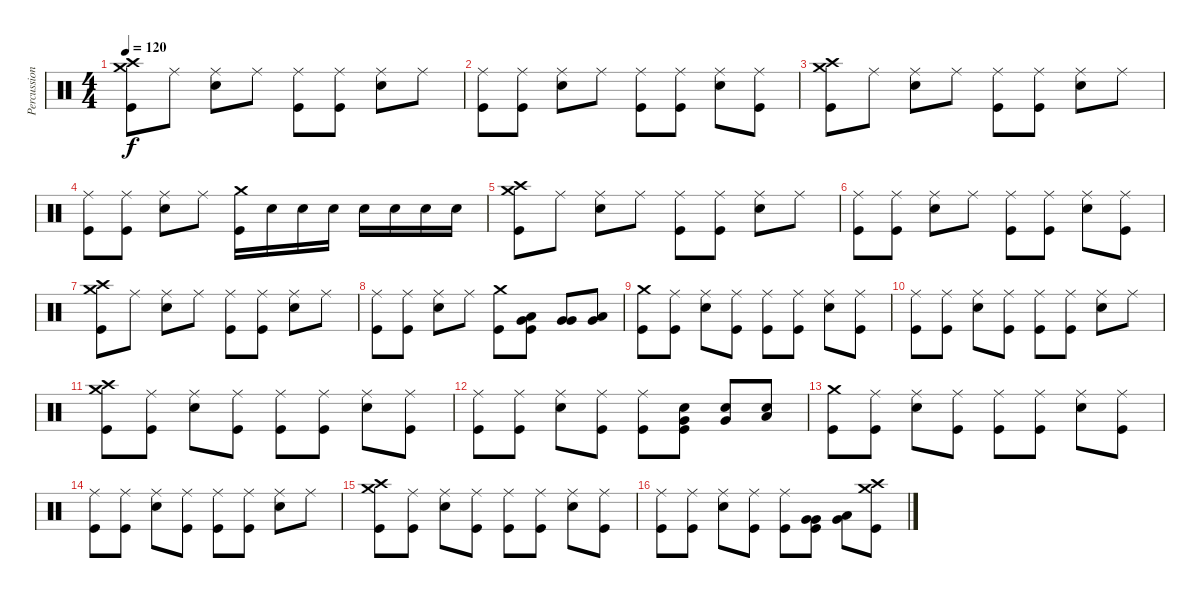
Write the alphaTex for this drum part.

\track ("Percussion" "Percussion") {instrument percussion}
\staff {score}
\articulation defaults
\ts (4 4)
\tempo 120
\clef neutral
\ks c
("Crash high (hit)" "Crash medium (hit)" "Kick (hit)").8{dy f} "Ride (middle)".8 ("Ride (middle)" "Snare (hit) 2").8 "Ride (middle)".8 ("Ride (middle)" "Kick (hit)").8 ("Ride (middle)" "Kick (hit)").8 ("Ride (middle)" "Snare (hit) 2").8 "Ride (middle)".8 |
("Ride (middle)" "Kick (hit)").8 ("Ride (middle)" "Kick (hit)").8 ("Ride (middle)" "Snare (hit) 2").8 "Ride (middle)".8 ("Ride (middle)" "Kick (hit)").8 ("Ride (middle)" "Kick (hit)").8 ("Ride (middle)" "Snare (hit) 2").8 ("Ride (middle)" "Kick (hit)").8 |
("Crash high (hit)" "Crash medium (hit)" "Kick (hit)").8 "Ride (middle)".8 ("Ride (middle)" "Snare (hit) 2").8 "Ride (middle)".8 ("Ride (middle)" "Kick (hit)").8 ("Ride (middle)" "Kick (hit)").8 ("Ride (middle)" "Snare (hit) 2").8 "Ride (middle)".8 |
("Ride (middle)" "Kick (hit)").8 ("Ride (middle)" "Kick (hit)").8 ("Ride (middle)" "Snare (hit) 2").8 "Ride (middle)".8 ("Crash medium (hit)" "Kick (hit)").16 "Snare (hit) 2".16 "Snare (hit) 2".16 "Snare (hit) 2".16 "Snare (hit) 2".16 "Snare (hit) 2".16 "Snare (hit) 2".16 "Snare (hit) 2".16 |
("Crash high (hit)" "Crash medium (hit)" "Kick (hit)").8 "Ride (middle)".8 ("Ride (middle)" "Snare (hit) 2").8 "Ride (middle)".8 ("Ride (middle)" "Kick (hit)").8 ("Ride (middle)" "Kick (hit)").8 ("Ride (middle)" "Snare (hit) 2").8 "Ride (middle)".8 |
("Ride (middle)" "Kick (hit)").8 ("Ride (middle)" "Kick (hit)").8 ("Ride (middle)" "Snare (hit) 2").8 "Ride (middle)".8 ("Ride (middle)" "Kick (hit)").8 ("Ride (middle)" "Kick (hit)").8 ("Ride (middle)" "Snare (hit) 2").8 ("Ride (middle)" "Kick (hit)").8 |
("Crash high (hit)" "Crash medium (hit)" "Kick (hit)").8 "Ride (middle)".8 ("Ride (middle)" "Snare (hit) 2").8 "Ride (middle)".8 ("Ride (middle)" "Kick (hit)").8 ("Ride (middle)" "Kick (hit)").8 ("Ride (middle)" "Snare (hit) 2").8 "Ride (middle)".8 |
("Ride (middle)" "Kick (hit)").8 ("Ride (middle)" "Kick (hit)").8 ("Ride (middle)" "Snare (hit) 2").8 "Ride (middle)".8 ("Crash medium (hit)" "Kick (hit)").8 ("Low Tom (hit)" "Very Low Tom (hit)" "Kick (hit)").8 ("Very Low Tom (hit)" "Very Low Tom (hit)").8 ("Very Low Tom (hit)" "Low Floor Tom (hit)").8 |
("Crash medium (hit)" "Kick (hit)").8 ("Ride (middle)" "Kick (hit)").8 ("Ride (middle)" "Snare (hit) 2").8 ("Ride (middle)" "Kick (hit)").8 ("Ride (middle)" "Kick (hit)").8 ("Ride (middle)" "Kick (hit)").8 ("Ride (middle)" "Snare (hit) 2").8 ("Ride (middle)" "Kick (hit)").8 |
("Ride (middle)" "Kick (hit)").8 ("Ride (middle)" "Kick (hit)").8 ("Ride (middle)" "Snare (hit) 2").8 ("Ride (middle)" "Kick (hit)").8 ("Ride (middle)" "Kick (hit)").8 ("Ride (middle)" "Kick (hit)").8 ("Ride (middle)" "Snare (hit) 2").8 "Ride (middle)".8 |
("Crash medium (hit)" "Crash high (hit)" "Kick (hit)").8 ("Ride (middle)" "Kick (hit)").8 ("Ride (middle)" "Snare (hit) 2").8 ("Ride (middle)" "Kick (hit)").8 ("Ride (middle)" "Kick (hit)").8 ("Ride (middle)" "Kick (hit)").8 ("Ride (middle)" "Snare (hit) 2").8 ("Ride (middle)" "Kick (hit)").8 |
("Ride (middle)" "Kick (hit)").8 ("Ride (middle)" "Kick (hit)").8 ("Ride (middle)" "Snare (hit) 2").8 ("Ride (middle)" "Kick (hit)").8 ("Ride (middle)" "Kick (hit)").8 ("Snare (hit) 2" "Very Low Tom (hit)" "Kick (hit)").8 ("Snare (hit) 2" "Very Low Tom (hit)").8 ("Snare (hit) 2" "Low Floor Tom (hit)").8 |
("Crash medium (hit)" "Kick (hit)").8 ("Ride (middle)" "Kick (hit)").8 ("Ride (middle)" "Snare (hit) 2").8 ("Ride (middle)" "Kick (hit)").8 ("Ride (middle)" "Kick (hit)").8 ("Ride (middle)" "Kick (hit)").8 ("Ride (middle)" "Snare (hit) 2").8 ("Ride (middle)" "Kick (hit)").8 |
("Ride (middle)" "Kick (hit)").8 ("Ride (middle)" "Kick (hit)").8 ("Ride (middle)" "Snare (hit) 2").8 ("Ride (middle)" "Kick (hit)").8 ("Ride (middle)" "Kick (hit)").8 ("Ride (middle)" "Kick (hit)").8 ("Ride (middle)" "Snare (hit) 2").8 "Ride (middle)".8 |
("Crash medium (hit)" "Crash high (hit)" "Kick (hit)").8 ("Ride (middle)" "Kick (hit)").8 ("Ride (middle)" "Snare (hit) 2").8 ("Ride (middle)" "Kick (hit)").8 ("Ride (middle)" "Kick (hit)").8 ("Ride (middle)" "Kick (hit)").8 ("Ride (middle)" "Snare (hit) 2").8 ("Ride (middle)" "Kick (hit)").8 |
("Ride (middle)" "Kick (hit)").8 ("Ride (middle)" "Kick (hit)").8 ("Ride (middle)" "Snare (hit) 2").8 ("Ride (middle)" "Kick (hit)").8 ("Ride (middle)" "Kick (hit)").8 ("Very Low Tom (hit)" "Very Low Tom (hit)" "Kick (hit)").8 ("Very Low Tom (hit)" "Low Floor Tom (hit)").8 ("Crash high (hit)" "Crash medium (hit)" "Kick (hit)").8
